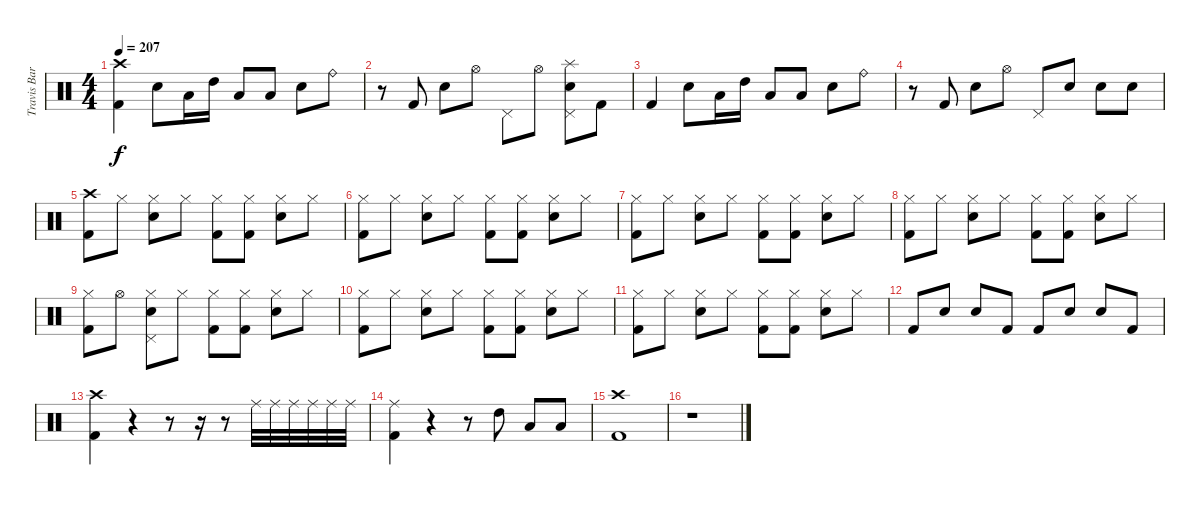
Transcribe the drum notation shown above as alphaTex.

\track ("Travis Barker" "Travis Bar") {instrument percussion}
\staff {score}
\articulation defaults
\ts (4 4)
\tempo 207
\clef neutral
\ks c
("Crash high (hit)" "Kick (hit) 2").4{dy f} "Electric Snare (hit)".8 "Low Tom (hit)".16 "High Tom (hit)".16 "Low Tom (hit)".8 "Low Tom (hit)".8 "Electric Snare (hit)".8 "Ride (bell)".8 |
r.8 "Kick (hit) 2".8 "Electric Snare (hit)".8 "Hi-Hat (open)".8 "Pedal Hi-Hat (hit)".8 "Hi-Hat (open)".8 ("Pedal Hi-Hat (hit)" "Splash (hit)" "Electric Snare (hit)").8 "Kick (hit) 2".8 |
"Kick (hit) 2".4 "Electric Snare (hit)".8 "Low Tom (hit)".16 "High Tom (hit)".16 "Low Tom (hit)".8 "Low Tom (hit)".8 "Electric Snare (hit)".8 "Ride (bell)".8 |
r.8 "Kick (hit) 2".8 "Electric Snare (hit)".8 "Hi-Hat (open)".8 "Pedal Hi-Hat (hit)".8 "Electric Snare (hit)".8 "Electric Snare (hit)".8 "Electric Snare (hit)".8 |
("Crash high (hit)" "Kick (hit) 2").8 "Hi-Hat (closed)".8 ("Hi-Hat (closed)" "Electric Snare (hit)").8 "Hi-Hat (closed)".8 ("Hi-Hat (closed)" "Kick (hit) 2").8 ("Hi-Hat (closed)" "Kick (hit) 2").8 ("Hi-Hat (closed)" "Electric Snare (hit)").8 "Hi-Hat (closed)".8 |
("Hi-Hat (closed)" "Kick (hit) 2").8 "Hi-Hat (closed)".8 ("Hi-Hat (closed)" "Electric Snare (hit)").8 "Hi-Hat (closed)".8 ("Hi-Hat (closed)" "Kick (hit) 2").8 ("Hi-Hat (closed)" "Kick (hit) 2").8 ("Hi-Hat (closed)" "Electric Snare (hit)").8 "Hi-Hat (closed)".8 |
("Hi-Hat (closed)" "Kick (hit) 2").8 "Hi-Hat (closed)".8 ("Hi-Hat (closed)" "Electric Snare (hit)").8 "Hi-Hat (closed)".8 ("Hi-Hat (closed)" "Kick (hit) 2").8 ("Hi-Hat (closed)" "Kick (hit) 2").8 ("Hi-Hat (closed)" "Electric Snare (hit)").8 "Hi-Hat (closed)".8 |
("Hi-Hat (closed)" "Kick (hit) 2").8 "Hi-Hat (closed)".8 ("Hi-Hat (closed)" "Electric Snare (hit)").8 "Hi-Hat (closed)".8 ("Hi-Hat (closed)" "Kick (hit) 2").8 ("Hi-Hat (closed)" "Kick (hit) 2").8 ("Hi-Hat (closed)" "Electric Snare (hit)").8 "Hi-Hat (closed)".8 |
("Hi-Hat (closed)" "Kick (hit) 2").8 "Hi-Hat (open)".8 ("Hi-Hat (closed)" "Electric Snare (hit)" "Pedal Hi-Hat (hit)").8 "Hi-Hat (closed)".8 ("Hi-Hat (closed)" "Kick (hit) 2").8 ("Hi-Hat (closed)" "Kick (hit) 2").8 ("Hi-Hat (closed)" "Electric Snare (hit)").8 "Hi-Hat (closed)".8 |
("Hi-Hat (closed)" "Kick (hit) 2").8 "Hi-Hat (closed)".8 ("Hi-Hat (closed)" "Electric Snare (hit)").8 "Hi-Hat (closed)".8 ("Hi-Hat (closed)" "Kick (hit) 2").8 ("Hi-Hat (closed)" "Kick (hit) 2").8 ("Hi-Hat (closed)" "Electric Snare (hit)").8 "Hi-Hat (closed)".8 |
("Hi-Hat (closed)" "Kick (hit) 2").8 "Hi-Hat (closed)".8 ("Hi-Hat (closed)" "Electric Snare (hit)").8 "Hi-Hat (closed)".8 ("Hi-Hat (closed)" "Kick (hit) 2").8 ("Hi-Hat (closed)" "Kick (hit) 2").8 ("Hi-Hat (closed)" "Electric Snare (hit)").8 "Hi-Hat (closed)".8 |
"Kick (hit) 2".8 "Electric Snare (hit)".8 "Electric Snare (hit)".8 "Kick (hit) 2".8 "Kick (hit) 2".8 "Electric Snare (hit)".8 "Electric Snare (hit)".8 "Kick (hit) 2".8 |
("Crash high (hit)" "Kick (hit) 2").4 r.4 r.8 r.16 r.8 "Ride (middle)".32 "Ride (middle)".32 "Ride (middle)".32 "Ride (middle)".32 "Ride (middle)".32 "Ride (middle)".32 |
("Ride (middle)" "Kick (hit) 2").4 r.4 r.8 "High Tom (hit)".8 "Low Tom (hit)".8 "Low Tom (hit)".8 |
("Crash high (hit)" "Kick (hit) 2").1 |
r.1
